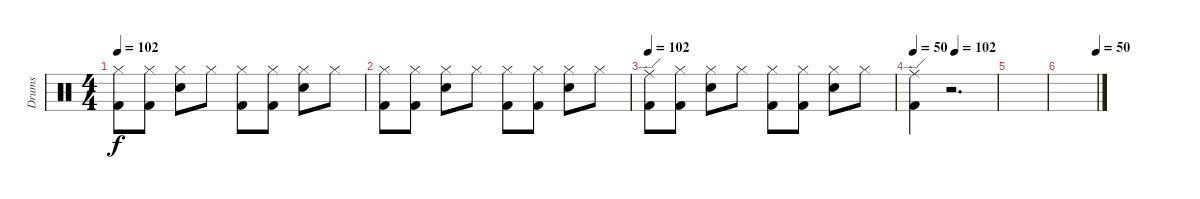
\defaultSystemsLayout 4
\bracketExtendMode groupsimilarinstruments
\otherSystemsTrackNameOrientation horizontal
\track ("Drumkit (Bonham)" "Drums") {instrument percussion}
\staff {score}
\articulation defaults
\ts (4 4)
\tempo 102
\clef neutral
\scale
0.333333
\ks c
("Hi-Hat (closed)" "Kick (hit) 2").8{dy f beam Down} ("Hi-Hat (closed)" "Kick (hit) 2").8{beam Down} ("Hi-Hat (closed)" "Snare (hit) 2").8{beam Down} "Hi-Hat (closed)".8{beam Down} ("Hi-Hat (closed)" "Kick (hit) 2").8{beam Down} ("Hi-Hat (closed)" "Kick (hit) 2").8{beam Down} ("Hi-Hat (closed)" "Snare (hit) 2").8{beam Down} "Hi-Hat (closed)".8{beam Down} |
\scale
0.333333 ("Hi-Hat (closed)" "Kick (hit) 2").8{beam Down} ("Hi-Hat (closed)" "Kick (hit) 2").8{beam Down} ("Hi-Hat (closed)" "Snare (hit) 2").8{beam Down} "Hi-Hat (closed)".8{beam Down} ("Hi-Hat (closed)" "Kick (hit) 2").8{beam Down} ("Hi-Hat (closed)" "Kick (hit) 2").8{beam Down} ("Hi-Hat (closed)" "Snare (hit) 2").8{beam Down} "Hi-Hat (closed)".8{beam Down} |
\tempo 102
\scale
0.333333 ("Ride (edge)" "Kick (hit) 2").8{beam Down} ("Hi-Hat (closed)" "Kick (hit) 2").8{beam Down} ("Hi-Hat (closed)" "Snare (hit) 2").8{beam Down} "Hi-Hat (closed)".8{beam Down} ("Hi-Hat (closed)" "Kick (hit) 2").8{beam Down} ("Hi-Hat (closed)" "Kick (hit) 2").8{beam Down} ("Hi-Hat (closed)" "Snare (hit) 2").8{beam Down} "Hi-Hat (closed)".8{beam Down} |
\tempo 50
\tempo (102 0.5)
\scale
0.333333 ("Ride (edge)" "Kick (hit) 2").4{beam Down} r.2{d beam Down} |
\scale
0.333333 |
\tempo (50 1)
